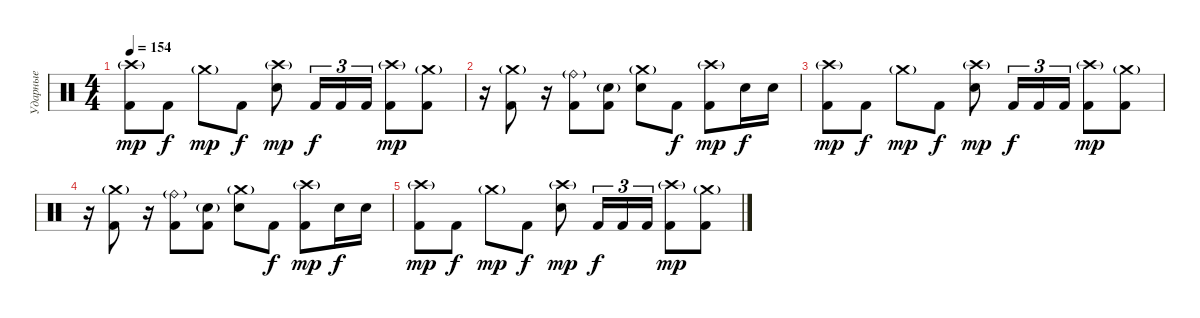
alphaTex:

\track ("Ударные" "Ударные") {instrument percussion}
\staff {score}
\articulation defaults
\ts (4 4)
\tempo 154
\clef neutral
\ks c
("Crash high (hit)"{g} "Kick (hit) 2").8{dy mp} "Kick (hit) 2".8{dy f} "Crash medium (hit)"{g}.8{dy mp} "Kick (hit) 2".8{dy f} ("Crash high (hit)"{g} "Electric Snare (hit)").8{dy mp} "Kick (hit) 2".16{tu (3 2) dy f} "Kick (hit) 2".16{tu (3 2)} "Kick (hit) 2".16{tu (3 2)} ("Crash high (hit)"{g} "Kick (hit) 2").8{dy mp} ("Crash medium (hit)"{g} "Kick (hit) 2").8 |
r.16 ("Crash medium (hit)"{g} "Kick (hit) 2").8 r.16 ("Ride (bell)"{g} "Kick (hit) 2").8 ("Electric Snare (hit)"{g} "Kick (hit) 2").8 ("Crash medium (hit)"{g} "Electric Snare (hit)").8 "Kick (hit) 2".8{dy f} ("Crash high (hit)"{g} "Kick (hit) 2").8{dy mp} "Electric Snare (hit)".16{dy f} "Electric Snare (hit)".16 |
("Crash high (hit)"{g} "Kick (hit) 2").8{dy mp} "Kick (hit) 2".8{dy f} "Crash medium (hit)"{g}.8{dy mp} "Kick (hit) 2".8{dy f} ("Crash high (hit)"{g} "Electric Snare (hit)").8{dy mp} "Kick (hit) 2".16{tu (3 2) dy f} "Kick (hit) 2".16{tu (3 2)} "Kick (hit) 2".16{tu (3 2)} ("Crash high (hit)"{g} "Kick (hit) 2").8{dy mp} ("Crash medium (hit)"{g} "Kick (hit) 2").8 |
r.16 ("Crash medium (hit)"{g} "Kick (hit) 2").8 r.16 ("Ride (bell)"{g} "Kick (hit) 2").8 ("Electric Snare (hit)"{g} "Kick (hit) 2").8 ("Crash medium (hit)"{g} "Electric Snare (hit)").8 "Kick (hit) 2".8{dy f} ("Crash high (hit)"{g} "Kick (hit) 2").8{dy mp} "Electric Snare (hit)".16{dy f} "Electric Snare (hit)".16 |
("Crash high (hit)"{g} "Kick (hit) 2").8{dy mp} "Kick (hit) 2".8{dy f} "Crash medium (hit)"{g}.8{dy mp} "Kick (hit) 2".8{dy f} ("Crash high (hit)"{g} "Electric Snare (hit)").8{dy mp} "Kick (hit) 2".16{tu (3 2) dy f} "Kick (hit) 2".16{tu (3 2)} "Kick (hit) 2".16{tu (3 2)} ("Crash high (hit)"{g} "Kick (hit) 2").8{dy mp} ("Crash medium (hit)"{g} "Kick (hit) 2").8
